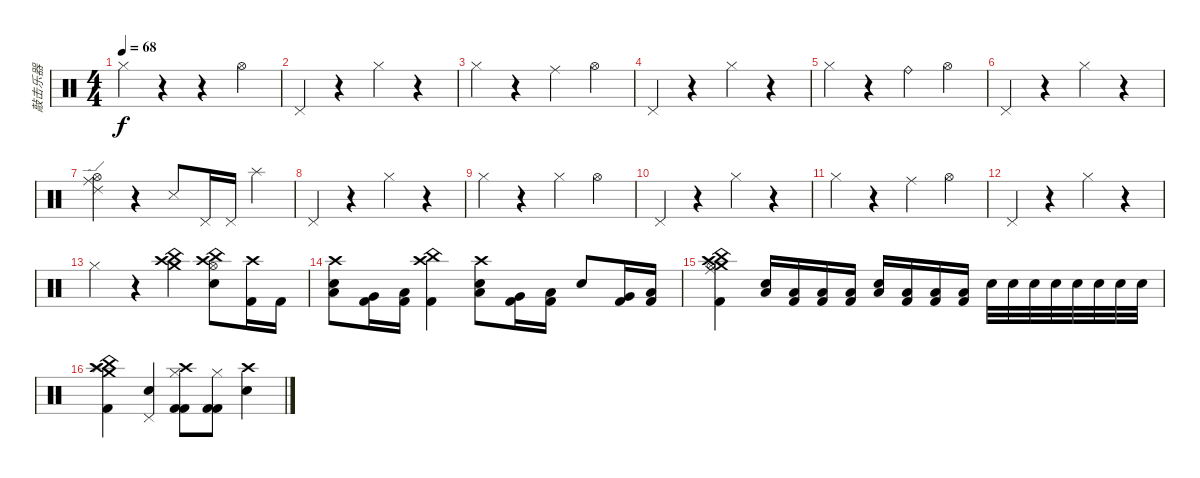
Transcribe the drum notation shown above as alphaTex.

\track ("敲击乐器" "敲击乐器") {instrument percussion}
\staff {score}
\articulation defaults
\ts (4 4)
\tempo 68
\clef neutral
\ks c "Hi-Hat (closed)".4{dy f}
r.4 r.4 "Hi-Hat (open)".4 |
"Pedal Hi-Hat (hit)".4 r.4 "Hi-Hat (closed)".4 r.4 |
"Hi-Hat (closed)".4 r.4 "Ride (middle)".4 "Hi-Hat (open)".4 |
"Pedal Hi-Hat (hit)".4 r.4 "Hi-Hat (closed)".4 r.4 |
"Hi-Hat (closed)".4 r.4 "Ride (bell)".4 "Hi-Hat (open)".4 |
"Pedal Hi-Hat (hit)".4 r.4 "Hi-Hat (closed)".4 r.4 |
("Ride (middle)" "Hi-Hat (open)" "Ride (edge) 2").4 r.4 "Metronome (hit)".8 "Pedal Hi-Hat (hit)".16 "Pedal Hi-Hat (hit)".16 "Splash (hit)".4 |
"Pedal Hi-Hat (hit)".4 r.4 "Hi-Hat (closed)".4 r.4 |
"Hi-Hat (closed)".4 r.4 "Hi-Hat (closed)".4 "Hi-Hat (open)".4 |
"Pedal Hi-Hat (hit)".4 r.4 "Hi-Hat (closed)".4 r.4 |
"Hi-Hat (closed)".4 r.4 "Ride (middle)".4 "Hi-Hat (open)".4 |
"Pedal Hi-Hat (hit)".4 r.4 "Hi-Hat (closed)".4 r.4 |
"Hi-Hat (closed)".4 r.4 ("China (hit)" "Crash high (hit)" "Crash medium (hit)").4 ("Crash high (hit)" "Hi-Hat (open)" "China (hit)" "Electric Snare (hit)").8 ("Crash high (hit)" "Kick (hit) 2").16 "Kick (hit) 2".16 |
("Crash high (hit)" "Low Tom (hit)" "Electric Snare (hit)").8 ("Very Low Tom (hit)" "Kick (hit) 2").16 ("Low Floor Tom (hit)" "Kick (hit) 2").16 ("Crash high (hit)" "China (hit)" "Kick (hit) 2").4 ("Crash high (hit)" "Low Tom (hit)" "Electric Snare (hit)").8 ("Very Low Tom (hit)" "Kick (hit) 2").16 ("Low Floor Tom (hit)" "Kick (hit) 2").16 "Electric Snare (hit)".8 ("Very Low Tom (hit)" "Kick (hit) 2").16 ("Low Floor Tom (hit)" "Kick (hit) 2").16 |
("Crash medium (hit)" "Ride (middle)" "China (hit)" "Crash high (hit)" "Hi-Hat (open)" "Kick (hit) 2").4 ("Low Floor Tom (hit)" "Electric Snare (hit)").16 ("Low Floor Tom (hit)" "Kick (hit) 2").16 ("Low Floor Tom (hit)" "Kick (hit) 2").16 ("Low Floor Tom (hit)" "Kick (hit) 2").16 ("Low Floor Tom (hit)" "Electric Snare (hit)").16 ("Low Floor Tom (hit)" "Kick (hit) 2").16 ("Low Floor Tom (hit)" "Kick (hit) 2").16 ("Low Floor Tom (hit)" "Kick (hit) 2").16 "Electric Snare (hit)".32 "Electric Snare (hit)".32 "Electric Snare (hit)".32 "Electric Snare (hit)".32 "Electric Snare (hit)".32 "Electric Snare (hit)".32 "Electric Snare (hit)".32 "Electric Snare (hit)".32 |
("Kick (hit) 2" "Crash high (hit)" "China (hit)" "Splash (hit)" "Crash medium (hit)").4 ("Pedal Hi-Hat (hit)" "Snare (hit) 2").4 ("Crash high (hit)" "Hi-Hat (closed)" "Kick (hit) 2" "Kick (hit) 2").8 ("Hi-Hat (closed)" "Kick (hit) 2" "Kick (hit) 2").8 ("Crash high (hit)" "Electric Snare (hit)").4
